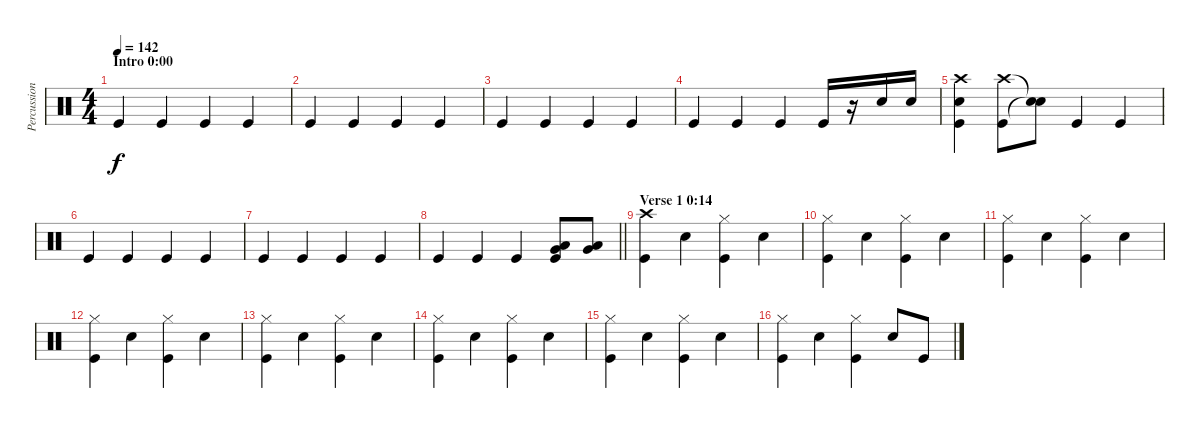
\track ("Percussion" "Percussion") {instrument percussion}
\staff {score}
\articulation defaults
\ts (4 4)
\section ("" "Intro 0:00")
\tempo 142
\clef neutral
\ks c "Kick (hit)".4{dy f} "Kick (hit)".4 "Kick (hit)".4 "Kick (hit)".4
|
"Kick (hit)".4 "Kick (hit)".4 "Kick (hit)".4 "Kick (hit)".4 |
"Kick (hit)".4 "Kick (hit)".4 "Kick (hit)".4 "Kick (hit)".4 |
"Kick (hit)".4 "Kick (hit)".4 "Kick (hit)".4 "Kick (hit)".16 r.16 "Snare (hit) 2".16 "Snare (hit) 2".16 |
("Crash high (hit)" "Snare (hit) 2" "Kick (hit)").4 ("Crash high (hit)" "Kick (hit)").8 ("Snare (hit)"{t} "Snare (hit)"{t}).8 "Kick (hit)".4 "Kick (hit)".4 |
"Kick (hit)".4 "Kick (hit)".4 "Kick (hit)".4 "Kick (hit)".4 |
"Kick (hit)".4 "Kick (hit)".4 "Kick (hit)".4 "Kick (hit)".4 |
\barLineRight lightlight "Kick (hit)".4 "Kick (hit)".4 "Kick (hit)".4
("Low Floor Tom (hit)" "Very Low Tom (hit)" "Kick (hit)").8 ("Low Floor Tom (hit)" "Very Low Tom (hit)").8 |
\section ("" "Verse 1 0:14")
("Crash high (hit)" "Kick (hit)").4 "Snare (hit) 2".4 ("Hi-Hat (closed)" "Kick (hit)").4 "Snare (hit) 2".4 |
("Hi-Hat (closed)" "Kick (hit)").4 "Snare (hit) 2".4 ("Hi-Hat (closed)" "Kick (hit)").4 "Snare (hit) 2".4 |
("Hi-Hat (closed)" "Kick (hit)").4 "Snare (hit) 2".4 ("Hi-Hat (closed)" "Kick (hit)").4 "Snare (hit) 2".4 |
("Hi-Hat (closed)" "Kick (hit)").4 "Snare (hit) 2".4 ("Hi-Hat (closed)" "Kick (hit)").4 "Snare (hit) 2".4 |
("Hi-Hat (closed)" "Kick (hit)").4 "Snare (hit) 2".4 ("Hi-Hat (closed)" "Kick (hit)").4 "Snare (hit) 2".4 |
("Hi-Hat (closed)" "Kick (hit)").4 "Snare (hit) 2".4 ("Hi-Hat (closed)" "Kick (hit)").4 "Snare (hit) 2".4 |
("Hi-Hat (closed)" "Kick (hit)").4 "Snare (hit) 2".4 ("Hi-Hat (closed)" "Kick (hit)").4 "Snare (hit) 2".4 |
("Hi-Hat (closed)" "Kick (hit)").4 "Snare (hit) 2".4 ("Hi-Hat (closed)" "Kick (hit)").4 "Snare (hit) 2".8 "Kick (hit)".8
